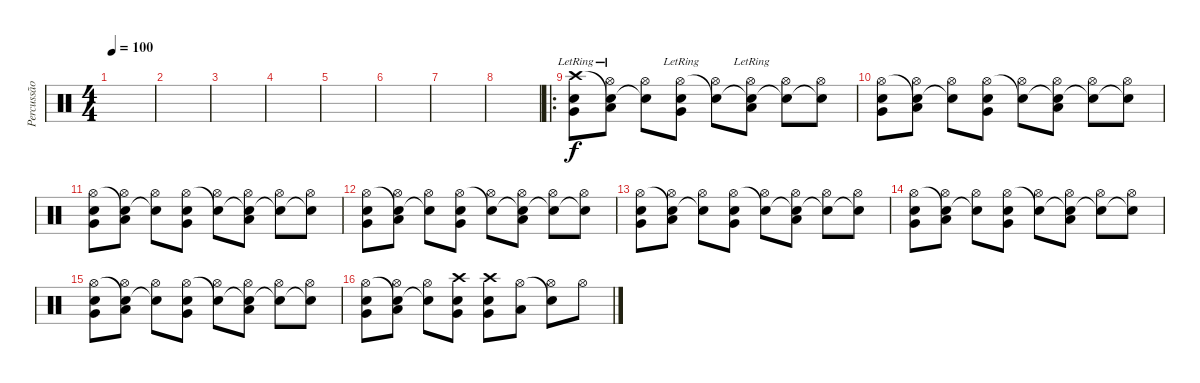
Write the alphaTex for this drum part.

\track ("Percussão" "Percussão") {instrument percussion}
\staff {score}
\articulation defaults
\ts (4 4)
\tempo 100
\clef neutral
\ks c
|
|
|
|
|
|
|
|
\ro
("Crash high (hit)" "Very Low Tom (hit)"{lr} "Snare (hit) 2"{lr}).8 ("Snare (hit)"{t} "Hi-Hat (open)" "Low Tom (hit)"{lr}).8 ("Snare (hit)"{t} "Hi-Hat (open)").8 ("Hi-Hat (open)" "Very Low Tom (hit)"{lr} "Snare (hit) 2"{lr}).8 ("Snare (hit)"{t} "Hi-Hat (open)").8 ("Snare (hit)"{t} "Hi-Hat (open)" "Low Tom (hit)"{lr}).8 ("Snare (hit)"{t} "Hi-Hat (open)").8 ("Snare (hit)"{t} "Hi-Hat (open)").8 |
("Hi-Hat (open)" "Very Low Tom (hit)" "Snare (hit) 2").8 ("Snare (hit)"{t} "Hi-Hat (open)" "Low Tom (hit)").8 ("Snare (hit)"{t} "Hi-Hat (open)").8 ("Hi-Hat (open)" "Very Low Tom (hit)" "Snare (hit) 2").8 ("Snare (hit)"{t} "Hi-Hat (open)").8 ("Snare (hit)"{t} "Hi-Hat (open)" "Low Tom (hit)").8 ("Snare (hit)"{t} "Hi-Hat (open)").8 ("Snare (hit)"{t} "Hi-Hat (open)").8 |
("Hi-Hat (open)" "Very Low Tom (hit)" "Snare (hit) 2").8 ("Snare (hit)"{t} "Hi-Hat (open)" "Low Tom (hit)").8 ("Snare (hit)"{t} "Hi-Hat (open)").8 ("Hi-Hat (open)" "Very Low Tom (hit)" "Snare (hit) 2").8 ("Snare (hit)"{t} "Hi-Hat (open)").8 ("Snare (hit)"{t} "Hi-Hat (open)" "Low Tom (hit)").8 ("Snare (hit)"{t} "Hi-Hat (open)").8 ("Snare (hit)"{t} "Hi-Hat (open)").8 |
("Hi-Hat (open)" "Very Low Tom (hit)" "Snare (hit) 2").8 ("Snare (hit)"{t} "Hi-Hat (open)" "Low Tom (hit)").8 ("Snare (hit)"{t} "Hi-Hat (open)").8 ("Hi-Hat (open)" "Very Low Tom (hit)" "Snare (hit) 2").8 ("Snare (hit)"{t} "Hi-Hat (open)").8 ("Snare (hit)"{t} "Hi-Hat (open)" "Low Tom (hit)").8 ("Snare (hit)"{t} "Hi-Hat (open)").8 ("Snare (hit)"{t} "Hi-Hat (open)").8 |
("Hi-Hat (open)" "Very Low Tom (hit)" "Snare (hit) 2").8 ("Snare (hit)"{t} "Hi-Hat (open)" "Low Tom (hit)").8 ("Snare (hit)"{t} "Hi-Hat (open)").8 ("Hi-Hat (open)" "Very Low Tom (hit)" "Snare (hit) 2").8 ("Snare (hit)"{t} "Hi-Hat (open)").8 ("Snare (hit)"{t} "Hi-Hat (open)" "Low Tom (hit)").8 ("Snare (hit)"{t} "Hi-Hat (open)").8 ("Snare (hit)"{t} "Hi-Hat (open)").8 |
("Hi-Hat (open)" "Very Low Tom (hit)" "Snare (hit) 2").8 ("Snare (hit)"{t} "Hi-Hat (open)" "Low Tom (hit)").8 ("Snare (hit)"{t} "Hi-Hat (open)").8 ("Hi-Hat (open)" "Very Low Tom (hit)" "Snare (hit) 2").8 ("Snare (hit)"{t} "Hi-Hat (open)").8 ("Snare (hit)"{t} "Hi-Hat (open)" "Low Tom (hit)").8 ("Snare (hit)"{t} "Hi-Hat (open)").8 ("Snare (hit)"{t} "Hi-Hat (open)").8 |
("Hi-Hat (open)" "Very Low Tom (hit)" "Snare (hit) 2").8 ("Snare (hit)"{t} "Hi-Hat (open)" "Low Tom (hit)").8 ("Snare (hit)"{t} "Hi-Hat (open)").8 ("Hi-Hat (open)" "Very Low Tom (hit)" "Snare (hit) 2").8 ("Snare (hit)"{t} "Hi-Hat (open)").8 ("Snare (hit)"{t} "Hi-Hat (open)" "Low Tom (hit)").8 ("Snare (hit)"{t} "Hi-Hat (open)").8 ("Snare (hit)"{t} "Hi-Hat (open)").8 |
("Hi-Hat (open)" "Very Low Tom (hit)" "Snare (hit) 2").8 ("Snare (hit)"{t} "Hi-Hat (open)" "Low Tom (hit)").8 ("Snare (hit)"{t} "Hi-Hat (open)").8 ("Crash high (hit)" "Very Low Tom (hit)" "Snare (hit) 2").8 ("Crash high (hit)" "Very Low Tom (hit)" "Snare (hit) 2").8 ("Hi-Hat (open)" "Low Tom (hit)").8 ("Snare (hit)"{t} "Hi-Hat (open)").8 "Hi-Hat (open)".8
